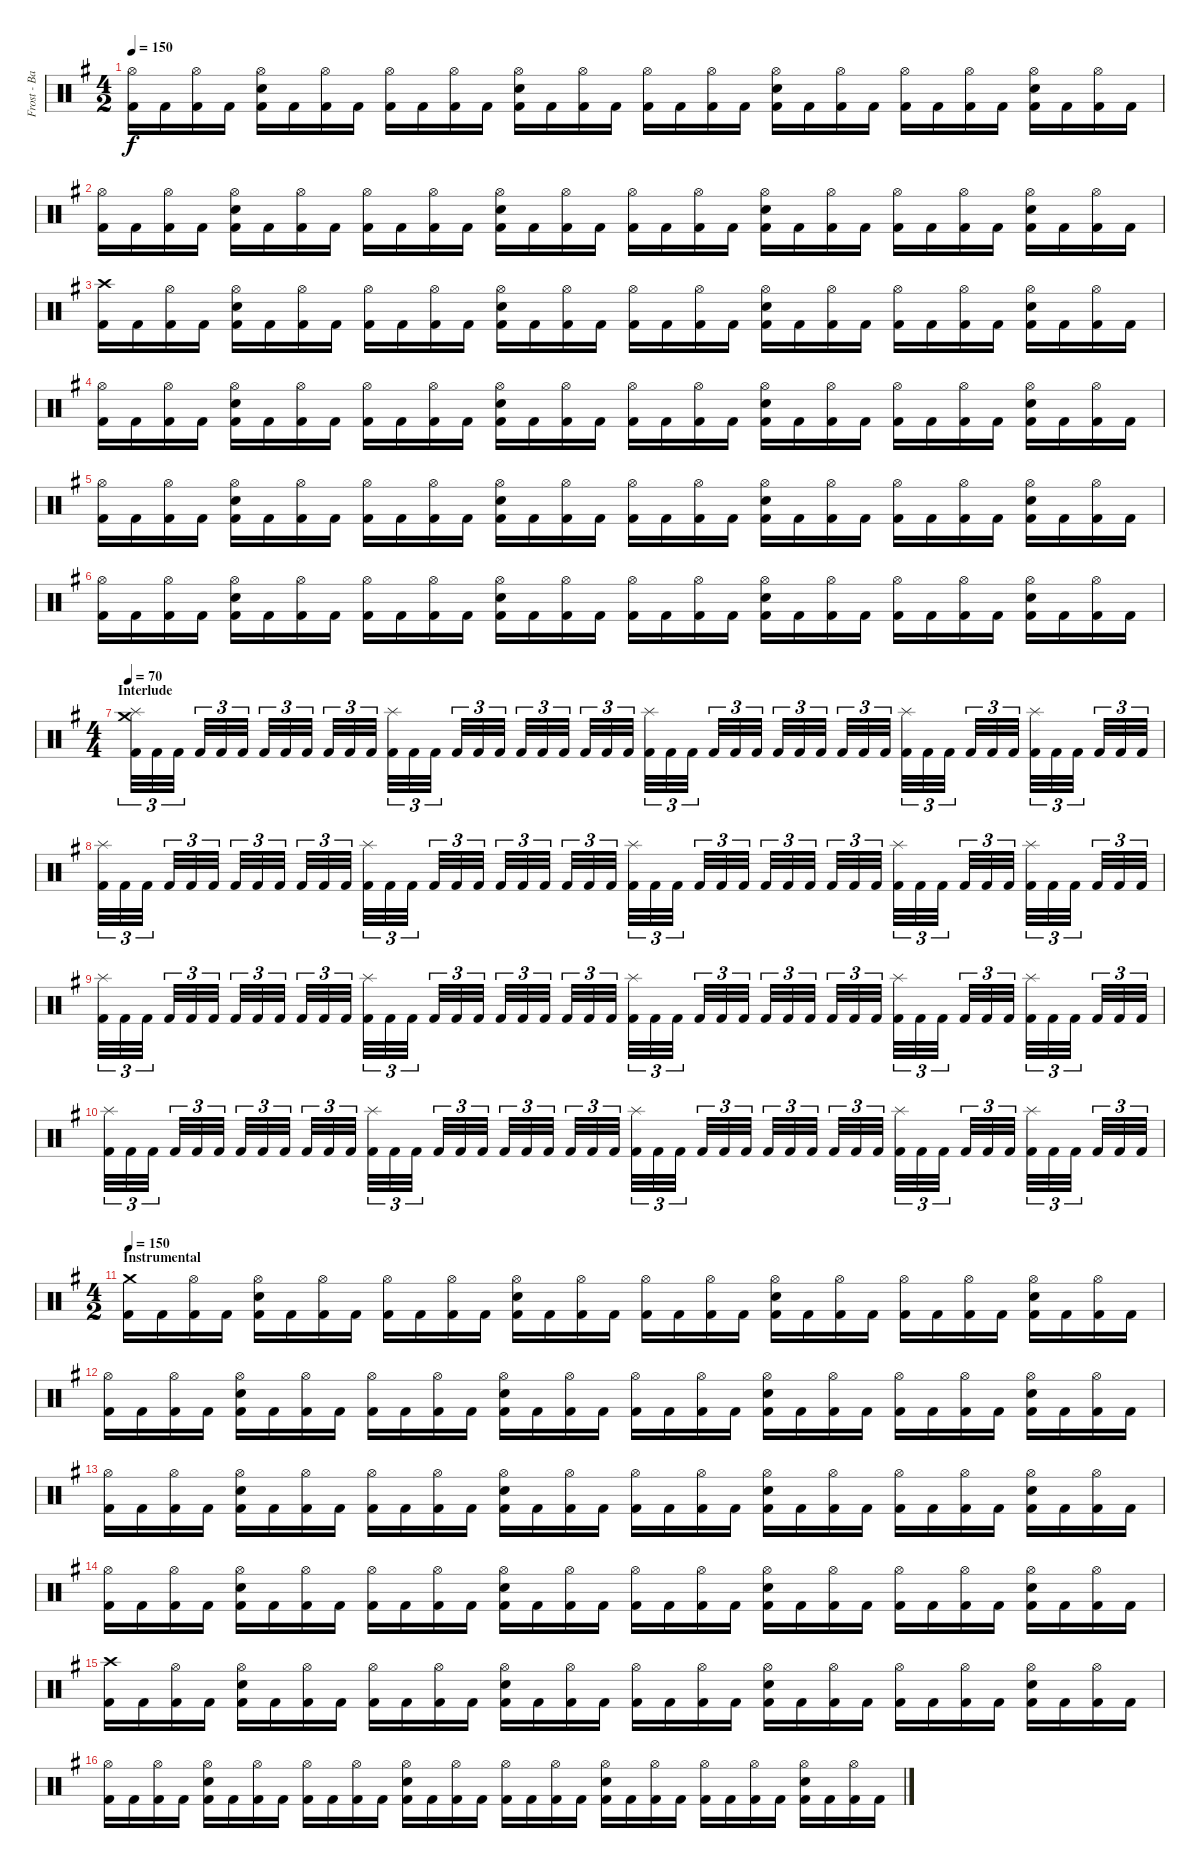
\track ("Frost - Battery" "Frost - Ba") {instrument percussion}
\staff {score}
\articulation defaults
\ts (4 2)
\tempo 150
\clef neutral
\ks eminor
("Kick (hit) 2" "Hi-Hat (open)").16{dy f} "Kick (hit) 2".16 ("Kick (hit) 2" "Hi-Hat (open)").16 "Kick (hit) 2".16 ("Kick (hit) 2" "Hi-Hat (open)" "Electric Snare (hit)").16 "Kick (hit) 2".16 ("Kick (hit) 2" "Hi-Hat (open)").16 "Kick (hit) 2".16 ("Kick (hit) 2" "Hi-Hat (open)").16 "Kick (hit) 2".16 ("Kick (hit) 2" "Hi-Hat (open)").16 "Kick (hit) 2".16 ("Kick (hit) 2" "Hi-Hat (open)" "Electric Snare (hit)").16 "Kick (hit) 2".16 ("Kick (hit) 2" "Hi-Hat (open)").16 "Kick (hit) 2".16 ("Kick (hit) 2" "Hi-Hat (open)").16 "Kick (hit) 2".16 ("Kick (hit) 2" "Hi-Hat (open)").16 "Kick (hit) 2".16 ("Kick (hit) 2" "Hi-Hat (open)" "Electric Snare (hit)").16 "Kick (hit) 2".16 ("Kick (hit) 2" "Hi-Hat (open)").16 "Kick (hit) 2".16 ("Kick (hit) 2" "Hi-Hat (open)").16 "Kick (hit) 2".16 ("Kick (hit) 2" "Hi-Hat (open)").16 "Kick (hit) 2".16 ("Kick (hit) 2" "Hi-Hat (open)" "Electric Snare (hit)").16 "Kick (hit) 2".16 ("Kick (hit) 2" "Hi-Hat (open)").16 "Kick (hit) 2".16 |
("Kick (hit) 2" "Hi-Hat (open)").16 "Kick (hit) 2".16 ("Kick (hit) 2" "Hi-Hat (open)").16 "Kick (hit) 2".16 ("Kick (hit) 2" "Hi-Hat (open)" "Electric Snare (hit)").16 "Kick (hit) 2".16 ("Kick (hit) 2" "Hi-Hat (open)").16 "Kick (hit) 2".16 ("Kick (hit) 2" "Hi-Hat (open)").16 "Kick (hit) 2".16 ("Kick (hit) 2" "Hi-Hat (open)").16 "Kick (hit) 2".16 ("Kick (hit) 2" "Hi-Hat (open)" "Electric Snare (hit)").16 "Kick (hit) 2".16 ("Kick (hit) 2" "Hi-Hat (open)").16 "Kick (hit) 2".16 ("Kick (hit) 2" "Hi-Hat (open)").16 "Kick (hit) 2".16 ("Kick (hit) 2" "Hi-Hat (open)").16 "Kick (hit) 2".16 ("Kick (hit) 2" "Hi-Hat (open)" "Electric Snare (hit)").16 "Kick (hit) 2".16 ("Kick (hit) 2" "Hi-Hat (open)").16 "Kick (hit) 2".16 ("Kick (hit) 2" "Hi-Hat (open)").16 "Kick (hit) 2".16 ("Kick (hit) 2" "Hi-Hat (open)").16 "Kick (hit) 2".16 ("Kick (hit) 2" "Hi-Hat (open)" "Electric Snare (hit)").16 "Kick (hit) 2".16 ("Kick (hit) 2" "Hi-Hat (open)").16 "Kick (hit) 2".16 |
("Kick (hit) 2" "Crash high (hit)").16 "Kick (hit) 2".16 ("Kick (hit) 2" "Hi-Hat (open)").16 "Kick (hit) 2".16 ("Kick (hit) 2" "Hi-Hat (open)" "Electric Snare (hit)").16 "Kick (hit) 2".16 ("Kick (hit) 2" "Hi-Hat (open)").16 "Kick (hit) 2".16 ("Kick (hit) 2" "Hi-Hat (open)").16 "Kick (hit) 2".16 ("Kick (hit) 2" "Hi-Hat (open)").16 "Kick (hit) 2".16 ("Kick (hit) 2" "Hi-Hat (open)" "Electric Snare (hit)").16 "Kick (hit) 2".16 ("Kick (hit) 2" "Hi-Hat (open)").16 "Kick (hit) 2".16 ("Kick (hit) 2" "Hi-Hat (open)").16 "Kick (hit) 2".16 ("Kick (hit) 2" "Hi-Hat (open)").16 "Kick (hit) 2".16 ("Kick (hit) 2" "Hi-Hat (open)" "Electric Snare (hit)").16 "Kick (hit) 2".16 ("Kick (hit) 2" "Hi-Hat (open)").16 "Kick (hit) 2".16 ("Kick (hit) 2" "Hi-Hat (open)").16 "Kick (hit) 2".16 ("Kick (hit) 2" "Hi-Hat (open)").16 "Kick (hit) 2".16 ("Kick (hit) 2" "Hi-Hat (open)" "Electric Snare (hit)").16 "Kick (hit) 2".16 ("Kick (hit) 2" "Hi-Hat (open)").16 "Kick (hit) 2".16 |
("Kick (hit) 2" "Hi-Hat (open)").16 "Kick (hit) 2".16 ("Kick (hit) 2" "Hi-Hat (open)").16 "Kick (hit) 2".16 ("Kick (hit) 2" "Hi-Hat (open)" "Electric Snare (hit)").16 "Kick (hit) 2".16 ("Kick (hit) 2" "Hi-Hat (open)").16 "Kick (hit) 2".16 ("Kick (hit) 2" "Hi-Hat (open)").16 "Kick (hit) 2".16 ("Kick (hit) 2" "Hi-Hat (open)").16 "Kick (hit) 2".16 ("Kick (hit) 2" "Hi-Hat (open)" "Electric Snare (hit)").16 "Kick (hit) 2".16 ("Kick (hit) 2" "Hi-Hat (open)").16 "Kick (hit) 2".16 ("Kick (hit) 2" "Hi-Hat (open)").16 "Kick (hit) 2".16 ("Kick (hit) 2" "Hi-Hat (open)").16 "Kick (hit) 2".16 ("Kick (hit) 2" "Hi-Hat (open)" "Electric Snare (hit)").16 "Kick (hit) 2".16 ("Kick (hit) 2" "Hi-Hat (open)").16 "Kick (hit) 2".16 ("Kick (hit) 2" "Hi-Hat (open)").16 "Kick (hit) 2".16 ("Kick (hit) 2" "Hi-Hat (open)").16 "Kick (hit) 2".16 ("Kick (hit) 2" "Hi-Hat (open)" "Electric Snare (hit)").16 "Kick (hit) 2".16 ("Kick (hit) 2" "Hi-Hat (open)").16 "Kick (hit) 2".16 |
("Kick (hit) 2" "Hi-Hat (open)").16 "Kick (hit) 2".16 ("Kick (hit) 2" "Hi-Hat (open)").16 "Kick (hit) 2".16 ("Kick (hit) 2" "Hi-Hat (open)" "Electric Snare (hit)").16 "Kick (hit) 2".16 ("Kick (hit) 2" "Hi-Hat (open)").16 "Kick (hit) 2".16 ("Kick (hit) 2" "Hi-Hat (open)").16 "Kick (hit) 2".16 ("Kick (hit) 2" "Hi-Hat (open)").16 "Kick (hit) 2".16 ("Kick (hit) 2" "Hi-Hat (open)" "Electric Snare (hit)").16 "Kick (hit) 2".16 ("Kick (hit) 2" "Hi-Hat (open)").16 "Kick (hit) 2".16 ("Kick (hit) 2" "Hi-Hat (open)").16 "Kick (hit) 2".16 ("Kick (hit) 2" "Hi-Hat (open)").16 "Kick (hit) 2".16 ("Kick (hit) 2" "Hi-Hat (open)" "Electric Snare (hit)").16 "Kick (hit) 2".16 ("Kick (hit) 2" "Hi-Hat (open)").16 "Kick (hit) 2".16 ("Kick (hit) 2" "Hi-Hat (open)").16 "Kick (hit) 2".16 ("Kick (hit) 2" "Hi-Hat (open)").16 "Kick (hit) 2".16 ("Kick (hit) 2" "Hi-Hat (open)" "Electric Snare (hit)").16 "Kick (hit) 2".16 ("Kick (hit) 2" "Hi-Hat (open)").16 "Kick (hit) 2".16 |
("Kick (hit) 2" "Hi-Hat (open)").16 "Kick (hit) 2".16 ("Kick (hit) 2" "Hi-Hat (open)").16 "Kick (hit) 2".16 ("Kick (hit) 2" "Hi-Hat (open)" "Electric Snare (hit)").16 "Kick (hit) 2".16 ("Kick (hit) 2" "Hi-Hat (open)").16 "Kick (hit) 2".16 ("Kick (hit) 2" "Hi-Hat (open)").16 "Kick (hit) 2".16 ("Kick (hit) 2" "Hi-Hat (open)").16 "Kick (hit) 2".16 ("Kick (hit) 2" "Hi-Hat (open)" "Electric Snare (hit)").16 "Kick (hit) 2".16 ("Kick (hit) 2" "Hi-Hat (open)").16 "Kick (hit) 2".16 ("Kick (hit) 2" "Hi-Hat (open)").16 "Kick (hit) 2".16 ("Kick (hit) 2" "Hi-Hat (open)").16 "Kick (hit) 2".16 ("Kick (hit) 2" "Hi-Hat (open)" "Electric Snare (hit)").16 "Kick (hit) 2".16 ("Kick (hit) 2" "Hi-Hat (open)").16 "Kick (hit) 2".16 ("Kick (hit) 2" "Hi-Hat (open)").16 "Kick (hit) 2".16 ("Kick (hit) 2" "Hi-Hat (open)").16 "Kick (hit) 2".16 ("Kick (hit) 2" "Hi-Hat (open)" "Electric Snare (hit)").16 "Kick (hit) 2".16 ("Kick (hit) 2" "Hi-Hat (open)").16 "Kick (hit) 2".16 |
\ts (4 4)
\section ("" "Interlude")
\tempo 70
("Kick (hit) 2" "Crash medium (hit)" "Splash (hit)").32{tu (3 2)} "Kick (hit) 2".32{tu (3 2)} "Kick (hit) 2".32{tu (3 2)} "Kick (hit) 2".32{tu (3 2)} "Kick (hit) 2".32{tu (3 2)} "Kick (hit) 2".32{tu (3 2)} "Kick (hit) 2".32{tu (3 2)} "Kick (hit) 2".32{tu (3 2)} "Kick (hit) 2".32{tu (3 2)} "Kick (hit) 2".32{tu (3 2)} "Kick (hit) 2".32{tu (3 2)} "Kick (hit) 2".32{tu (3 2)} ("Kick (hit) 2" "Splash (hit)").32{tu (3 2)} "Kick (hit) 2".32{tu (3 2)} "Kick (hit) 2".32{tu (3 2)} "Kick (hit) 2".32{tu (3 2)} "Kick (hit) 2".32{tu (3 2)} "Kick (hit) 2".32{tu (3 2)} "Kick (hit) 2".32{tu (3 2)} "Kick (hit) 2".32{tu (3 2)} "Kick (hit) 2".32{tu (3 2)} "Kick (hit) 2".32{tu (3 2)} "Kick (hit) 2".32{tu (3 2)} "Kick (hit) 2".32{tu (3 2)} ("Kick (hit) 2" "Splash (hit)").32{tu (3 2)} "Kick (hit) 2".32{tu (3 2)} "Kick (hit) 2".32{tu (3 2)} "Kick (hit) 2".32{tu (3 2)} "Kick (hit) 2".32{tu (3 2)} "Kick (hit) 2".32{tu (3 2)} "Kick (hit) 2".32{tu (3 2)} "Kick (hit) 2".32{tu (3 2)} "Kick (hit) 2".32{tu (3 2)} "Kick (hit) 2".32{tu (3 2)} "Kick (hit) 2".32{tu (3 2)} "Kick (hit) 2".32{tu (3 2)} ("Kick (hit) 2" "Splash (hit)").32{tu (3 2)} "Kick (hit) 2".32{tu (3 2)} "Kick (hit) 2".32{tu (3 2)} "Kick (hit) 2".32{tu (3 2)} "Kick (hit) 2".32{tu (3 2)} "Kick (hit) 2".32{tu (3 2)} ("Kick (hit) 2" "Splash (hit)").32{tu (3 2)} "Kick (hit) 2".32{tu (3 2)} "Kick (hit) 2".32{tu (3 2)} "Kick (hit) 2".32{tu (3 2)} "Kick (hit) 2".32{tu (3 2)} "Kick (hit) 2".32{tu (3 2)} |
("Kick (hit) 2" "Splash (hit)").32{tu (3 2)} "Kick (hit) 2".32{tu (3 2)} "Kick (hit) 2".32{tu (3 2)} "Kick (hit) 2".32{tu (3 2)} "Kick (hit) 2".32{tu (3 2)} "Kick (hit) 2".32{tu (3 2)} "Kick (hit) 2".32{tu (3 2)} "Kick (hit) 2".32{tu (3 2)} "Kick (hit) 2".32{tu (3 2)} "Kick (hit) 2".32{tu (3 2)} "Kick (hit) 2".32{tu (3 2)} "Kick (hit) 2".32{tu (3 2)} ("Kick (hit) 2" "Splash (hit)").32{tu (3 2)} "Kick (hit) 2".32{tu (3 2)} "Kick (hit) 2".32{tu (3 2)} "Kick (hit) 2".32{tu (3 2)} "Kick (hit) 2".32{tu (3 2)} "Kick (hit) 2".32{tu (3 2)} "Kick (hit) 2".32{tu (3 2)} "Kick (hit) 2".32{tu (3 2)} "Kick (hit) 2".32{tu (3 2)} "Kick (hit) 2".32{tu (3 2)} "Kick (hit) 2".32{tu (3 2)} "Kick (hit) 2".32{tu (3 2)} ("Kick (hit) 2" "Splash (hit)").32{tu (3 2)} "Kick (hit) 2".32{tu (3 2)} "Kick (hit) 2".32{tu (3 2)} "Kick (hit) 2".32{tu (3 2)} "Kick (hit) 2".32{tu (3 2)} "Kick (hit) 2".32{tu (3 2)} "Kick (hit) 2".32{tu (3 2)} "Kick (hit) 2".32{tu (3 2)} "Kick (hit) 2".32{tu (3 2)} "Kick (hit) 2".32{tu (3 2)} "Kick (hit) 2".32{tu (3 2)} "Kick (hit) 2".32{tu (3 2)} ("Kick (hit) 2" "Splash (hit)").32{tu (3 2)} "Kick (hit) 2".32{tu (3 2)} "Kick (hit) 2".32{tu (3 2)} "Kick (hit) 2".32{tu (3 2)} "Kick (hit) 2".32{tu (3 2)} "Kick (hit) 2".32{tu (3 2)} ("Kick (hit) 2" "Splash (hit)").32{tu (3 2)} "Kick (hit) 2".32{tu (3 2)} "Kick (hit) 2".32{tu (3 2)} "Kick (hit) 2".32{tu (3 2)} "Kick (hit) 2".32{tu (3 2)} "Kick (hit) 2".32{tu (3 2)} |
("Kick (hit) 2" "Splash (hit)").32{tu (3 2)} "Kick (hit) 2".32{tu (3 2)} "Kick (hit) 2".32{tu (3 2)} "Kick (hit) 2".32{tu (3 2)} "Kick (hit) 2".32{tu (3 2)} "Kick (hit) 2".32{tu (3 2)} "Kick (hit) 2".32{tu (3 2)} "Kick (hit) 2".32{tu (3 2)} "Kick (hit) 2".32{tu (3 2)} "Kick (hit) 2".32{tu (3 2)} "Kick (hit) 2".32{tu (3 2)} "Kick (hit) 2".32{tu (3 2)} ("Kick (hit) 2" "Splash (hit)").32{tu (3 2)} "Kick (hit) 2".32{tu (3 2)} "Kick (hit) 2".32{tu (3 2)} "Kick (hit) 2".32{tu (3 2)} "Kick (hit) 2".32{tu (3 2)} "Kick (hit) 2".32{tu (3 2)} "Kick (hit) 2".32{tu (3 2)} "Kick (hit) 2".32{tu (3 2)} "Kick (hit) 2".32{tu (3 2)} "Kick (hit) 2".32{tu (3 2)} "Kick (hit) 2".32{tu (3 2)} "Kick (hit) 2".32{tu (3 2)} ("Kick (hit) 2" "Splash (hit)").32{tu (3 2)} "Kick (hit) 2".32{tu (3 2)} "Kick (hit) 2".32{tu (3 2)} "Kick (hit) 2".32{tu (3 2)} "Kick (hit) 2".32{tu (3 2)} "Kick (hit) 2".32{tu (3 2)} "Kick (hit) 2".32{tu (3 2)} "Kick (hit) 2".32{tu (3 2)} "Kick (hit) 2".32{tu (3 2)} "Kick (hit) 2".32{tu (3 2)} "Kick (hit) 2".32{tu (3 2)} "Kick (hit) 2".32{tu (3 2)} ("Kick (hit) 2" "Splash (hit)").32{tu (3 2)} "Kick (hit) 2".32{tu (3 2)} "Kick (hit) 2".32{tu (3 2)} "Kick (hit) 2".32{tu (3 2)} "Kick (hit) 2".32{tu (3 2)} "Kick (hit) 2".32{tu (3 2)} ("Kick (hit) 2" "Splash (hit)").32{tu (3 2)} "Kick (hit) 2".32{tu (3 2)} "Kick (hit) 2".32{tu (3 2)} "Kick (hit) 2".32{tu (3 2)} "Kick (hit) 2".32{tu (3 2)} "Kick (hit) 2".32{tu (3 2)} |
("Kick (hit) 2" "Splash (hit)").32{tu (3 2)} "Kick (hit) 2".32{tu (3 2)} "Kick (hit) 2".32{tu (3 2)} "Kick (hit) 2".32{tu (3 2)} "Kick (hit) 2".32{tu (3 2)} "Kick (hit) 2".32{tu (3 2)} "Kick (hit) 2".32{tu (3 2)} "Kick (hit) 2".32{tu (3 2)} "Kick (hit) 2".32{tu (3 2)} "Kick (hit) 2".32{tu (3 2)} "Kick (hit) 2".32{tu (3 2)} "Kick (hit) 2".32{tu (3 2)} ("Kick (hit) 2" "Splash (hit)").32{tu (3 2)} "Kick (hit) 2".32{tu (3 2)} "Kick (hit) 2".32{tu (3 2)} "Kick (hit) 2".32{tu (3 2)} "Kick (hit) 2".32{tu (3 2)} "Kick (hit) 2".32{tu (3 2)} "Kick (hit) 2".32{tu (3 2)} "Kick (hit) 2".32{tu (3 2)} "Kick (hit) 2".32{tu (3 2)} "Kick (hit) 2".32{tu (3 2)} "Kick (hit) 2".32{tu (3 2)} "Kick (hit) 2".32{tu (3 2)} ("Kick (hit) 2" "Splash (hit)").32{tu (3 2)} "Kick (hit) 2".32{tu (3 2)} "Kick (hit) 2".32{tu (3 2)} "Kick (hit) 2".32{tu (3 2)} "Kick (hit) 2".32{tu (3 2)} "Kick (hit) 2".32{tu (3 2)} "Kick (hit) 2".32{tu (3 2)} "Kick (hit) 2".32{tu (3 2)} "Kick (hit) 2".32{tu (3 2)} "Kick (hit) 2".32{tu (3 2)} "Kick (hit) 2".32{tu (3 2)} "Kick (hit) 2".32{tu (3 2)} ("Kick (hit) 2" "Splash (hit)").32{tu (3 2)} "Kick (hit) 2".32{tu (3 2)} "Kick (hit) 2".32{tu (3 2)} "Kick (hit) 2".32{tu (3 2)} "Kick (hit) 2".32{tu (3 2)} "Kick (hit) 2".32{tu (3 2)} ("Kick (hit) 2" "Splash (hit)").32{tu (3 2)} "Kick (hit) 2".32{tu (3 2)} "Kick (hit) 2".32{tu (3 2)} "Kick (hit) 2".32{tu (3 2)} "Kick (hit) 2".32{tu (3 2)} "Kick (hit) 2".32{tu (3 2)} |
\ts (4 2)
\section ("" "Instrumental")
\tempo 150
("Kick (hit) 2" "Crash medium (hit)").16 "Kick (hit) 2".16 ("Kick (hit) 2" "Hi-Hat (open)").16 "Kick (hit) 2".16 ("Kick (hit) 2" "Hi-Hat (open)" "Electric Snare (hit)").16 "Kick (hit) 2".16 ("Kick (hit) 2" "Hi-Hat (open)").16 "Kick (hit) 2".16 ("Kick (hit) 2" "Hi-Hat (open)").16 "Kick (hit) 2".16 ("Kick (hit) 2" "Hi-Hat (open)").16 "Kick (hit) 2".16 ("Kick (hit) 2" "Hi-Hat (open)" "Electric Snare (hit)").16 "Kick (hit) 2".16 ("Kick (hit) 2" "Hi-Hat (open)").16 "Kick (hit) 2".16 ("Kick (hit) 2" "Hi-Hat (open)").16 "Kick (hit) 2".16 ("Kick (hit) 2" "Hi-Hat (open)").16 "Kick (hit) 2".16 ("Kick (hit) 2" "Hi-Hat (open)" "Electric Snare (hit)").16 "Kick (hit) 2".16 ("Kick (hit) 2" "Hi-Hat (open)").16 "Kick (hit) 2".16 ("Kick (hit) 2" "Hi-Hat (open)").16 "Kick (hit) 2".16 ("Kick (hit) 2" "Hi-Hat (open)").16 "Kick (hit) 2".16 ("Kick (hit) 2" "Hi-Hat (open)" "Electric Snare (hit)").16 "Kick (hit) 2".16 ("Kick (hit) 2" "Hi-Hat (open)").16 "Kick (hit) 2".16 |
("Kick (hit) 2" "Hi-Hat (open)").16 "Kick (hit) 2".16 ("Kick (hit) 2" "Hi-Hat (open)").16 "Kick (hit) 2".16 ("Kick (hit) 2" "Hi-Hat (open)" "Electric Snare (hit)").16 "Kick (hit) 2".16 ("Kick (hit) 2" "Hi-Hat (open)").16 "Kick (hit) 2".16 ("Kick (hit) 2" "Hi-Hat (open)").16 "Kick (hit) 2".16 ("Kick (hit) 2" "Hi-Hat (open)").16 "Kick (hit) 2".16 ("Kick (hit) 2" "Hi-Hat (open)" "Electric Snare (hit)").16 "Kick (hit) 2".16 ("Kick (hit) 2" "Hi-Hat (open)").16 "Kick (hit) 2".16 ("Kick (hit) 2" "Hi-Hat (open)").16 "Kick (hit) 2".16 ("Kick (hit) 2" "Hi-Hat (open)").16 "Kick (hit) 2".16 ("Kick (hit) 2" "Hi-Hat (open)" "Electric Snare (hit)").16 "Kick (hit) 2".16 ("Kick (hit) 2" "Hi-Hat (open)").16 "Kick (hit) 2".16 ("Kick (hit) 2" "Hi-Hat (open)").16 "Kick (hit) 2".16 ("Kick (hit) 2" "Hi-Hat (open)").16 "Kick (hit) 2".16 ("Kick (hit) 2" "Hi-Hat (open)" "Electric Snare (hit)").16 "Kick (hit) 2".16 ("Kick (hit) 2" "Hi-Hat (open)").16 "Kick (hit) 2".16 |
("Kick (hit) 2" "Hi-Hat (open)").16 "Kick (hit) 2".16 ("Kick (hit) 2" "Hi-Hat (open)").16 "Kick (hit) 2".16 ("Kick (hit) 2" "Hi-Hat (open)" "Electric Snare (hit)").16 "Kick (hit) 2".16 ("Kick (hit) 2" "Hi-Hat (open)").16 "Kick (hit) 2".16 ("Kick (hit) 2" "Hi-Hat (open)").16 "Kick (hit) 2".16 ("Kick (hit) 2" "Hi-Hat (open)").16 "Kick (hit) 2".16 ("Kick (hit) 2" "Hi-Hat (open)" "Electric Snare (hit)").16 "Kick (hit) 2".16 ("Kick (hit) 2" "Hi-Hat (open)").16 "Kick (hit) 2".16 ("Kick (hit) 2" "Hi-Hat (open)").16 "Kick (hit) 2".16 ("Kick (hit) 2" "Hi-Hat (open)").16 "Kick (hit) 2".16 ("Kick (hit) 2" "Hi-Hat (open)" "Electric Snare (hit)").16 "Kick (hit) 2".16 ("Kick (hit) 2" "Hi-Hat (open)").16 "Kick (hit) 2".16 ("Kick (hit) 2" "Hi-Hat (open)").16 "Kick (hit) 2".16 ("Kick (hit) 2" "Hi-Hat (open)").16 "Kick (hit) 2".16 ("Kick (hit) 2" "Hi-Hat (open)" "Electric Snare (hit)").16 "Kick (hit) 2".16 ("Kick (hit) 2" "Hi-Hat (open)").16 "Kick (hit) 2".16 |
("Kick (hit) 2" "Hi-Hat (open)").16 "Kick (hit) 2".16 ("Kick (hit) 2" "Hi-Hat (open)").16 "Kick (hit) 2".16 ("Kick (hit) 2" "Hi-Hat (open)" "Electric Snare (hit)").16 "Kick (hit) 2".16 ("Kick (hit) 2" "Hi-Hat (open)").16 "Kick (hit) 2".16 ("Kick (hit) 2" "Hi-Hat (open)").16 "Kick (hit) 2".16 ("Kick (hit) 2" "Hi-Hat (open)").16 "Kick (hit) 2".16 ("Kick (hit) 2" "Hi-Hat (open)" "Electric Snare (hit)").16 "Kick (hit) 2".16 ("Kick (hit) 2" "Hi-Hat (open)").16 "Kick (hit) 2".16 ("Kick (hit) 2" "Hi-Hat (open)").16 "Kick (hit) 2".16 ("Kick (hit) 2" "Hi-Hat (open)").16 "Kick (hit) 2".16 ("Kick (hit) 2" "Hi-Hat (open)" "Electric Snare (hit)").16 "Kick (hit) 2".16 ("Kick (hit) 2" "Hi-Hat (open)").16 "Kick (hit) 2".16 ("Kick (hit) 2" "Hi-Hat (open)").16 "Kick (hit) 2".16 ("Kick (hit) 2" "Hi-Hat (open)").16 "Kick (hit) 2".16 ("Kick (hit) 2" "Hi-Hat (open)" "Electric Snare (hit)").16 "Kick (hit) 2".16 ("Kick (hit) 2" "Hi-Hat (open)").16 "Kick (hit) 2".16 |
("Kick (hit) 2" "Crash high (hit)").16 "Kick (hit) 2".16 ("Kick (hit) 2" "Hi-Hat (open)").16 "Kick (hit) 2".16 ("Kick (hit) 2" "Hi-Hat (open)" "Electric Snare (hit)").16 "Kick (hit) 2".16 ("Kick (hit) 2" "Hi-Hat (open)").16 "Kick (hit) 2".16 ("Kick (hit) 2" "Hi-Hat (open)").16 "Kick (hit) 2".16 ("Kick (hit) 2" "Hi-Hat (open)").16 "Kick (hit) 2".16 ("Kick (hit) 2" "Hi-Hat (open)" "Electric Snare (hit)").16 "Kick (hit) 2".16 ("Kick (hit) 2" "Hi-Hat (open)").16 "Kick (hit) 2".16 ("Kick (hit) 2" "Hi-Hat (open)").16 "Kick (hit) 2".16 ("Kick (hit) 2" "Hi-Hat (open)").16 "Kick (hit) 2".16 ("Kick (hit) 2" "Hi-Hat (open)" "Electric Snare (hit)").16 "Kick (hit) 2".16 ("Kick (hit) 2" "Hi-Hat (open)").16 "Kick (hit) 2".16 ("Kick (hit) 2" "Hi-Hat (open)").16 "Kick (hit) 2".16 ("Kick (hit) 2" "Hi-Hat (open)").16 "Kick (hit) 2".16 ("Kick (hit) 2" "Hi-Hat (open)" "Electric Snare (hit)").16 "Kick (hit) 2".16 ("Kick (hit) 2" "Hi-Hat (open)").16 "Kick (hit) 2".16 |
("Kick (hit) 2" "Hi-Hat (open)").16 "Kick (hit) 2".16 ("Kick (hit) 2" "Hi-Hat (open)").16 "Kick (hit) 2".16 ("Kick (hit) 2" "Hi-Hat (open)" "Electric Snare (hit)").16 "Kick (hit) 2".16 ("Kick (hit) 2" "Hi-Hat (open)").16 "Kick (hit) 2".16 ("Kick (hit) 2" "Hi-Hat (open)").16 "Kick (hit) 2".16 ("Kick (hit) 2" "Hi-Hat (open)").16 "Kick (hit) 2".16 ("Kick (hit) 2" "Hi-Hat (open)" "Electric Snare (hit)").16 "Kick (hit) 2".16 ("Kick (hit) 2" "Hi-Hat (open)").16 "Kick (hit) 2".16 ("Kick (hit) 2" "Hi-Hat (open)").16 "Kick (hit) 2".16 ("Kick (hit) 2" "Hi-Hat (open)").16 "Kick (hit) 2".16 ("Kick (hit) 2" "Hi-Hat (open)" "Electric Snare (hit)").16 "Kick (hit) 2".16 ("Kick (hit) 2" "Hi-Hat (open)").16 "Kick (hit) 2".16 ("Kick (hit) 2" "Hi-Hat (open)").16 "Kick (hit) 2".16 ("Kick (hit) 2" "Hi-Hat (open)").16 "Kick (hit) 2".16 ("Kick (hit) 2" "Hi-Hat (open)" "Electric Snare (hit)").16 "Kick (hit) 2".16 ("Kick (hit) 2" "Hi-Hat (open)").16 "Kick (hit) 2".16
